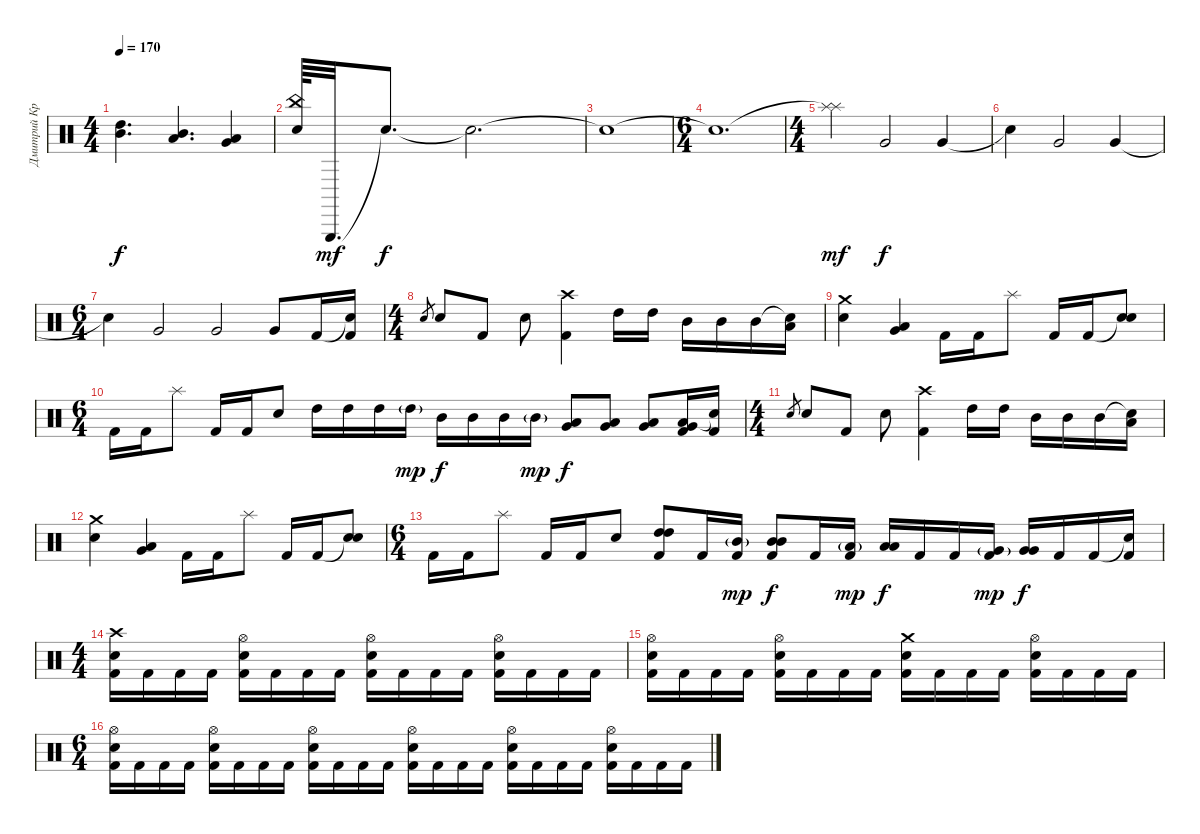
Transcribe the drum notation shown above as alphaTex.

\track ("Дмитрий Кривенков" "Дмитрий Кр") {instrument percussion}
\staff {score}
\articulation defaults
\ts (4 4)
\tempo 170
\clef neutral
\ks c
("High Tom (hit)" "Mid Tom (hit)").4{d dy f} ("Mid Tom (hit)" "Low Tom (hit)").4{d} ("Low Tom (hit)" "Very Low Tom (hit)").4 |
("China (hit)" "Electric Snare (hit)").64 "Triangle (hit)".32{d dy mf} "Snare (hit)"{t}.8{d dy f} "Snare (hit)"{t}.2{d} |
"Snare (hit)"{t}.1 |
\ts (6 4)
"Snare (hit)"{t}.1{d} |
\ts (4 4)
("Splash (hit)"{t} "Splash (hit)").4{dy mf} "Very Low Tom (hit)".2{dy f} "Very Low Tom (hit)".4 |
"Snare (hit)"{t}.4 "Very Low Tom (hit)".2 "Very Low Tom (hit)".4 |
\ts (6 4)
"Snare (hit)"{t}.4 "Very Low Tom (hit)".2 "Very Low Tom (hit)".2 "Very Low Tom (hit)".8 "Kick (hit) 2".16 ("Snare (hit)"{t} "Kick (hit) 2").16 |
\ts (4 4)
"Electric Snare (hit)".8{gr} "Electric Snare (hit)".8 "Kick (hit) 2".8 "Electric Snare (hit)".8 ("Crash high (hit)" "Kick (hit) 2").4 "High Tom (hit)".16 "High Tom (hit)".16 "Mid Tom (hit)".16 "Mid Tom (hit)".16 "Mid Tom (hit)".16 ("Snare (hit)"{t} "Low Tom (hit)").16 |
("Crash medium (hit)" "Electric Snare (hit)").4 ("Low Floor Tom (hit)" "Very Low Tom (hit)").4 "Kick (hit) 2".16 "Kick (hit) 2".16 "Splash (hit)".8 "Kick (hit) 2".16 "Kick (hit) 2".16 ("Snare (hit)"{t} "Electric Snare (hit)").8 |
\ts (6 4)
"Kick (hit) 2".16 "Kick (hit) 2".16 "Splash (hit)".8 "Kick (hit) 2".16 "Kick (hit) 2".16 "Electric Snare (hit)".8 "High Tom (hit)".16 "High Tom (hit)".16 "High Tom (hit)".16 "High Tom (hit)"{g}.16{dy mp} "Mid Tom (hit)".16{dy f} "Mid Tom (hit)".16 "Mid Tom (hit)".16 "Mid Tom (hit)"{g}.16{dy mp} ("Low Tom (hit)" "Very Low Tom (hit)").8{dy f} ("Low Tom (hit)" "Very Low Tom (hit)").8 ("Low Tom (hit)" "Very Low Tom (hit)").8 ("Low Tom (hit)" "Very Low Tom (hit)" "Kick (hit) 2").16 ("Snare (hit)"{t} "Kick (hit) 2").16 |
\ts (4 4)
"Electric Snare (hit)".8{gr} "Electric Snare (hit)".8 "Kick (hit) 2".8 "Electric Snare (hit)".8 ("Crash high (hit)" "Kick (hit) 2").4 "High Tom (hit)".16 "High Tom (hit)".16 "Mid Tom (hit)".16 "Mid Tom (hit)".16 "Mid Tom (hit)".16 ("Snare (hit)"{t} "Low Tom (hit)").16 |
("Crash medium (hit)" "Electric Snare (hit)").4 ("Low Floor Tom (hit)" "Very Low Tom (hit)").4 "Kick (hit) 2".16 "Kick (hit) 2".16 "Splash (hit)".8 "Kick (hit) 2".16 "Kick (hit) 2".16 ("Snare (hit)"{t} "Electric Snare (hit)").8 |
\ts (6 4)
"Kick (hit) 2".16 "Kick (hit) 2".16 "Splash (hit)".8 "Kick (hit) 2".16 "Kick (hit) 2".16 "Electric Snare (hit)".8 ("High Tom (hit)" "High Tom (hit)" "Kick (hit) 2").8 "Kick (hit) 2".16 ("Mid Tom (hit)"{g} "Kick (hit) 2").16{dy mp} ("Mid Tom (hit)" "Mid Tom (hit)" "Kick (hit) 2").8{dy f} "Kick (hit) 2".16 ("Low Tom (hit)"{g} "Kick (hit) 2").16{dy mp} ("Low Tom (hit)" "Low Tom (hit)").16{dy f} "Kick (hit) 2".16 "Kick (hit) 2".16 ("Very Low Tom (hit)"{g} "Kick (hit) 2").16{dy mp} ("Very Low Tom (hit)" "Very Low Tom (hit)").16{dy f} "Kick (hit) 2".16 "Kick (hit) 2".16 ("Snare (hit)"{t} "Kick (hit) 2").16 |
\ts (4 4)
("Crash high (hit)" "Electric Snare (hit)" "Kick (hit) 2").16 "Kick (hit) 2".16 "Kick (hit) 2".16 "Kick (hit) 2".16 ("Hi-Hat (open)" "Electric Snare (hit)" "Kick (hit) 2").16 "Kick (hit) 2".16 "Kick (hit) 2".16 "Kick (hit) 2".16 ("Hi-Hat (open)" "Electric Snare (hit)" "Kick (hit) 2").16 "Kick (hit) 2".16 "Kick (hit) 2".16 "Kick (hit) 2".16 ("Hi-Hat (open)" "Electric Snare (hit)" "Kick (hit) 2").16 "Kick (hit) 2".16 "Kick (hit) 2".16 "Kick (hit) 2".16 |
("Hi-Hat (open)" "Electric Snare (hit)" "Kick (hit) 2").16 "Kick (hit) 2".16 "Kick (hit) 2".16 "Kick (hit) 2".16 ("Hi-Hat (open)" "Electric Snare (hit)" "Kick (hit) 2").16 "Kick (hit) 2".16 "Kick (hit) 2".16 "Kick (hit) 2".16 ("Crash medium (hit)" "Electric Snare (hit)" "Kick (hit) 2").16 "Kick (hit) 2".16 "Kick (hit) 2".16 "Kick (hit) 2".16 ("Hi-Hat (open)" "Electric Snare (hit)" "Kick (hit) 2").16 "Kick (hit) 2".16 "Kick (hit) 2".16 "Kick (hit) 2".16 |
\ts (6 4)
("Hi-Hat (open)" "Electric Snare (hit)" "Kick (hit) 2").16 "Kick (hit) 2".16 "Kick (hit) 2".16 "Kick (hit) 2".16 ("Hi-Hat (open)" "Electric Snare (hit)" "Kick (hit) 2").16 "Kick (hit) 2".16 "Kick (hit) 2".16 "Kick (hit) 2".16 ("Hi-Hat (open)" "Electric Snare (hit)" "Kick (hit) 2").16 "Kick (hit) 2".16 "Kick (hit) 2".16 "Kick (hit) 2".16 ("Hi-Hat (open)" "Electric Snare (hit)" "Kick (hit) 2").16 "Kick (hit) 2".16 "Kick (hit) 2".16 "Kick (hit) 2".16 ("Hi-Hat (open)" "Electric Snare (hit)" "Kick (hit) 2").16 "Kick (hit) 2".16 "Kick (hit) 2".16 "Kick (hit) 2".16 ("Hi-Hat (open)" "Electric Snare (hit)" "Kick (hit) 2").16 "Kick (hit) 2".16 "Kick (hit) 2".16 "Kick (hit) 2".16
